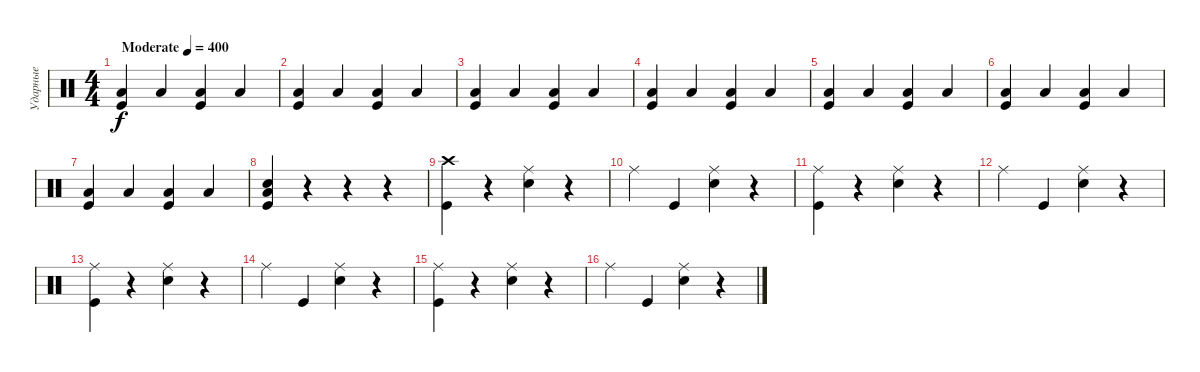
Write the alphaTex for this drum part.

\track ("Ударные" "Ударные") {instrument percussion}
\staff {score}
\articulation defaults
\ts (4 4)
\tempo (400 "Moderate")
\clef neutral
\ks c
("Kick (hit)" "Low Tom (hit)").4{dy f} "Low Tom (hit)".4 ("Kick (hit)" "Low Tom (hit)").4 "Low Tom (hit)".4 |
("Kick (hit)" "Low Tom (hit)").4 "Low Tom (hit)".4 ("Kick (hit)" "Low Tom (hit)").4 "Low Tom (hit)".4 |
("Kick (hit)" "Low Tom (hit)").4 "Low Tom (hit)".4 ("Kick (hit)" "Low Tom (hit)").4 "Low Tom (hit)".4 |
("Kick (hit)" "Low Tom (hit)").4 "Low Tom (hit)".4 ("Kick (hit)" "Low Tom (hit)").4 "Low Tom (hit)".4 |
("Kick (hit)" "Low Tom (hit)").4 "Low Tom (hit)".4 ("Kick (hit)" "Low Tom (hit)").4 "Low Tom (hit)".4 |
("Kick (hit)" "Low Tom (hit)").4 "Low Tom (hit)".4 ("Kick (hit)" "Low Tom (hit)").4 "Low Tom (hit)".4 |
("Kick (hit)" "Low Tom (hit)").4 "Low Tom (hit)".4 ("Kick (hit)" "Low Tom (hit)").4 "Low Tom (hit)".4 |
("Kick (hit)" "Snare (hit) 2" "Low Floor Tom (hit)").4 r.4 r.4 r.4 |
("Kick (hit)" "Crash high (hit)").4 r.4 ("Snare (hit) 2" "Ride (middle)").4 r.4 |
"Ride (middle)".4 "Kick (hit)".4 ("Snare (hit) 2" "Ride (middle)").4 r.4 |
("Kick (hit)" "Ride (middle)").4 r.4 ("Snare (hit) 2" "Ride (middle)").4 r.4 |
"Ride (middle)".4 "Kick (hit)".4 ("Snare (hit) 2" "Ride (middle)").4 r.4 |
("Kick (hit)" "Ride (middle)").4 r.4 ("Snare (hit) 2" "Ride (middle)").4 r.4 |
"Ride (middle)".4 "Kick (hit)".4 ("Snare (hit) 2" "Ride (middle)").4 r.4 |
("Kick (hit)" "Ride (middle)").4 r.4 ("Snare (hit) 2" "Ride (middle)").4 r.4 |
"Ride (middle)".4 "Kick (hit)".4 ("Snare (hit) 2" "Ride (middle)").4 r.4
